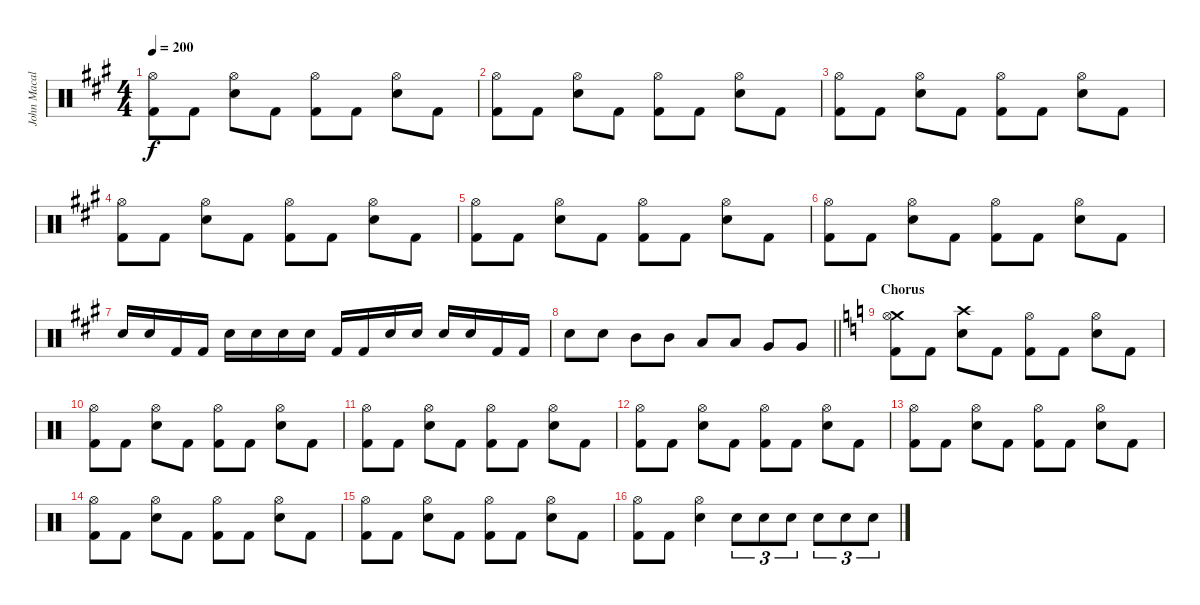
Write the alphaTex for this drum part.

\track ("John Macaluso" "John Macal") {instrument percussion}
\staff {score}
\articulation defaults
\ts (4 4)
\tempo 200
\clef neutral
\ks a
("Hi-Hat (open)" "Kick (hit) 2").8{dy f} "Kick (hit) 2".8 ("Hi-Hat (open)" "Snare (hit) 2").8 "Kick (hit) 2".8 ("Hi-Hat (open)" "Kick (hit) 2").8 "Kick (hit) 2".8 ("Hi-Hat (open)" "Snare (hit) 2").8 "Kick (hit) 2".8 |
("Hi-Hat (open)" "Kick (hit) 2").8 "Kick (hit) 2".8 ("Hi-Hat (open)" "Snare (hit) 2").8 "Kick (hit) 2".8 ("Hi-Hat (open)" "Kick (hit) 2").8 "Kick (hit) 2".8 ("Hi-Hat (open)" "Snare (hit) 2").8 "Kick (hit) 2".8 |
("Hi-Hat (open)" "Kick (hit) 2").8 "Kick (hit) 2".8 ("Hi-Hat (open)" "Snare (hit) 2").8 "Kick (hit) 2".8 ("Hi-Hat (open)" "Kick (hit) 2").8 "Kick (hit) 2".8 ("Hi-Hat (open)" "Snare (hit) 2").8 "Kick (hit) 2".8 |
("Hi-Hat (open)" "Kick (hit) 2").8 "Kick (hit) 2".8 ("Hi-Hat (open)" "Snare (hit) 2").8 "Kick (hit) 2".8 ("Hi-Hat (open)" "Kick (hit) 2").8 "Kick (hit) 2".8 ("Hi-Hat (open)" "Snare (hit) 2").8 "Kick (hit) 2".8 |
("Hi-Hat (open)" "Kick (hit) 2").8 "Kick (hit) 2".8 ("Hi-Hat (open)" "Snare (hit) 2").8 "Kick (hit) 2".8 ("Hi-Hat (open)" "Kick (hit) 2").8 "Kick (hit) 2".8 ("Hi-Hat (open)" "Snare (hit) 2").8 "Kick (hit) 2".8 |
("Hi-Hat (open)" "Kick (hit) 2").8 "Kick (hit) 2".8 ("Hi-Hat (open)" "Snare (hit) 2").8 "Kick (hit) 2".8 ("Hi-Hat (open)" "Kick (hit) 2").8 "Kick (hit) 2".8 ("Hi-Hat (open)" "Snare (hit) 2").8 "Kick (hit) 2".8 |
"Snare (hit) 2".16 "Snare (hit) 2".16 "Kick (hit) 2".16 "Kick (hit) 2".16 "Snare (hit) 2".16 "Snare (hit) 2".16 "Snare (hit) 2".16 "Snare (hit) 2".16 "Kick (hit) 2".16 "Kick (hit) 2".16 "Snare (hit) 2".16 "Snare (hit) 2".16 "Snare (hit) 2".16 "Snare (hit) 2".16 "Kick (hit) 2".16 "Kick (hit) 2".16 |
\barLineRight lightlight "Snare (hit) 2".8 "Snare (hit) 2".8 "Mid Tom (hit)".8 "Mid Tom (hit)".8 "Low Tom (hit)".8 "Low Tom (hit)".8 "Very Low Tom (hit)".8 "Very Low Tom (hit)".8
|
\section ("" "Chorus")
\ks c
("Crash medium (hit)" "Hi-Hat (open)" "Kick (hit) 2").8 "Kick (hit) 2".8 ("Crash high (hit)" "Snare (hit) 2").8 "Kick (hit) 2".8 ("Hi-Hat (open)" "Kick (hit) 2").8 "Kick (hit) 2".8 ("Hi-Hat (open)" "Snare (hit) 2").8 "Kick (hit) 2".8 |
("Hi-Hat (open)" "Kick (hit) 2").8 "Kick (hit) 2".8 ("Hi-Hat (open)" "Snare (hit) 2").8 "Kick (hit) 2".8 ("Hi-Hat (open)" "Kick (hit) 2").8 "Kick (hit) 2".8 ("Hi-Hat (open)" "Snare (hit) 2").8 "Kick (hit) 2".8 |
("Hi-Hat (open)" "Kick (hit) 2").8 "Kick (hit) 2".8 ("Hi-Hat (open)" "Snare (hit) 2").8 "Kick (hit) 2".8 ("Hi-Hat (open)" "Kick (hit) 2").8 "Kick (hit) 2".8 ("Hi-Hat (open)" "Snare (hit) 2").8 "Kick (hit) 2".8 |
("Hi-Hat (open)" "Kick (hit) 2").8 "Kick (hit) 2".8 ("Hi-Hat (open)" "Snare (hit) 2").8 "Kick (hit) 2".8 ("Hi-Hat (open)" "Kick (hit) 2").8 "Kick (hit) 2".8 ("Hi-Hat (open)" "Snare (hit) 2").8 "Kick (hit) 2".8 |
("Hi-Hat (open)" "Kick (hit) 2").8 "Kick (hit) 2".8 ("Hi-Hat (open)" "Snare (hit) 2").8 "Kick (hit) 2".8 ("Hi-Hat (open)" "Kick (hit) 2").8 "Kick (hit) 2".8 ("Hi-Hat (open)" "Snare (hit) 2").8 "Kick (hit) 2".8 |
("Hi-Hat (open)" "Kick (hit) 2").8 "Kick (hit) 2".8 ("Hi-Hat (open)" "Snare (hit) 2").8 "Kick (hit) 2".8 ("Hi-Hat (open)" "Kick (hit) 2").8 "Kick (hit) 2".8 ("Hi-Hat (open)" "Snare (hit) 2").8 "Kick (hit) 2".8 |
("Hi-Hat (open)" "Kick (hit) 2").8 "Kick (hit) 2".8 ("Hi-Hat (open)" "Snare (hit) 2").8 "Kick (hit) 2".8 ("Hi-Hat (open)" "Kick (hit) 2").8 "Kick (hit) 2".8 ("Hi-Hat (open)" "Snare (hit) 2").8 "Kick (hit) 2".8 |
("Hi-Hat (open)" "Kick (hit) 2").8 "Kick (hit) 2".8 ("Hi-Hat (open)" "Snare (hit) 2").4 "Snare (hit) 2".8{tu (3 2)} "Snare (hit) 2".8{tu (3 2)} "Snare (hit) 2".8{tu (3 2)} "Snare (hit) 2".8{tu (3 2)} "Snare (hit) 2".8{tu (3 2)} "Snare (hit) 2".8{tu (3 2)}
